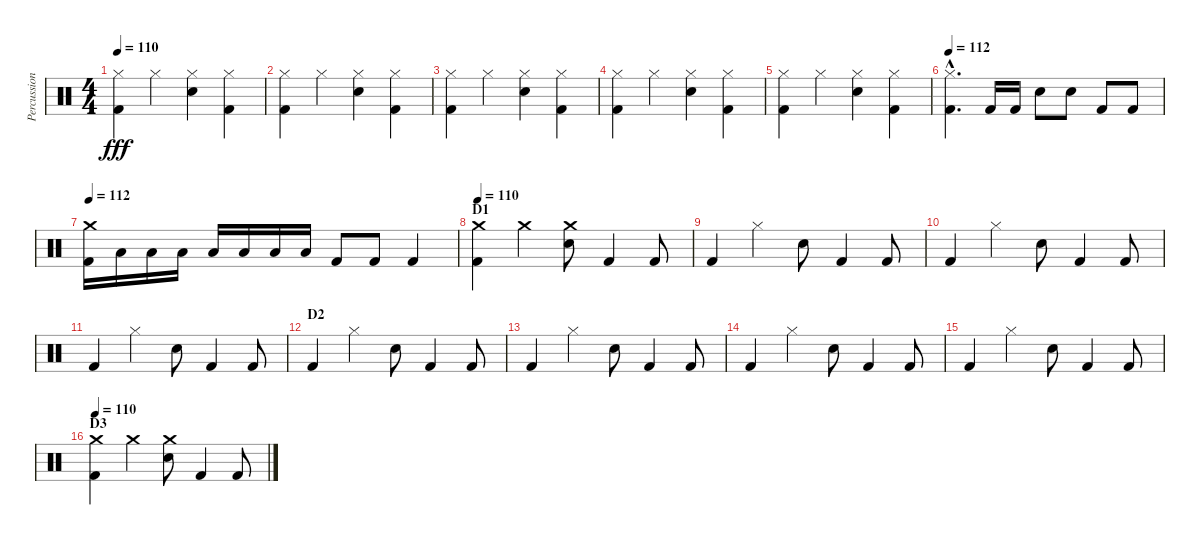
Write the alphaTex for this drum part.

\track ("Percussion" "Percussion") {instrument percussion}
\staff {score}
\articulation defaults
\ts (4 4)
\tempo 110
\clef neutral
\ks c
("Kick (hit) 2" "Hi-Hat (closed)").4{dy fff} "Hi-Hat (closed)".4 ("Electric Snare (hit)" "Hi-Hat (closed)").4 ("Kick (hit) 2" "Hi-Hat (closed)").4 |
("Kick (hit) 2" "Hi-Hat (closed)").4 "Hi-Hat (closed)".4 ("Electric Snare (hit)" "Hi-Hat (closed)").4 ("Kick (hit) 2" "Hi-Hat (closed)").4 |
("Kick (hit) 2" "Hi-Hat (closed)").4 "Hi-Hat (closed)".4 ("Electric Snare (hit)" "Hi-Hat (closed)").4 ("Kick (hit) 2" "Hi-Hat (closed)").4 |
("Kick (hit) 2" "Hi-Hat (closed)").4 "Hi-Hat (closed)".4 ("Electric Snare (hit)" "Hi-Hat (closed)").4 ("Kick (hit) 2" "Hi-Hat (closed)").4 |
("Kick (hit) 2" "Hi-Hat (closed)").4 "Hi-Hat (closed)".4 ("Electric Snare (hit)" "Hi-Hat (closed)").4 ("Kick (hit) 2" "Hi-Hat (closed)").4 |
\tempo 112
("Kick (hit) 2"{hac} "Hi-Hat (closed)"{hac}).4{d} "Kick (hit) 2".16 "Kick (hit) 2".16 "Electric Snare (hit)".8 "Electric Snare (hit)".8 "Kick (hit) 2".8 "Kick (hit) 2".8 |
\tempo 112
("Kick (hit) 2" "Crash medium (hit)").16 "Low Tom (hit)".16 "Low Tom (hit)".16 "Low Tom (hit)".16 "Low Tom (hit)".16 "Low Tom (hit)".16 "Low Tom (hit)".16 "Low Tom (hit)".16 "Kick (hit) 2".8 "Kick (hit) 2".8 "Kick (hit) 2".4 |
\section ("" "D1")
\tempo 110
("Kick (hit) 2" "Crash medium (hit)").4 "Crash medium (hit)".4 ("Electric Snare (hit)" "Crash medium (hit)").8 "Kick (hit) 2".4 "Kick (hit) 2".8 |
"Kick (hit) 2".4 "Hi-Hat (closed)".4 "Electric Snare (hit)".8 "Kick (hit) 2".4 "Kick (hit) 2".8 |
"Kick (hit) 2".4 "Hi-Hat (closed)".4 "Electric Snare (hit)".8 "Kick (hit) 2".4 "Kick (hit) 2".8 |
"Kick (hit) 2".4 "Hi-Hat (closed)".4 "Electric Snare (hit)".8 "Kick (hit) 2".4 "Kick (hit) 2".8 |
\section ("" "D2")
"Kick (hit) 2".4 "Hi-Hat (closed)".4 "Electric Snare (hit)".8 "Kick (hit) 2".4 "Kick (hit) 2".8 |
"Kick (hit) 2".4 "Hi-Hat (closed)".4 "Electric Snare (hit)".8 "Kick (hit) 2".4 "Kick (hit) 2".8 |
"Kick (hit) 2".4 "Hi-Hat (closed)".4 "Electric Snare (hit)".8 "Kick (hit) 2".4 "Kick (hit) 2".8 |
"Kick (hit) 2".4 "Hi-Hat (closed)".4 "Electric Snare (hit)".8 "Kick (hit) 2".4 "Kick (hit) 2".8 |
\section ("" "D3")
\tempo 110
("Kick (hit) 2" "Crash medium (hit)").4 "Crash medium (hit)".4 ("Electric Snare (hit)" "Crash medium (hit)").8 "Kick (hit) 2".4 "Kick (hit) 2".8
